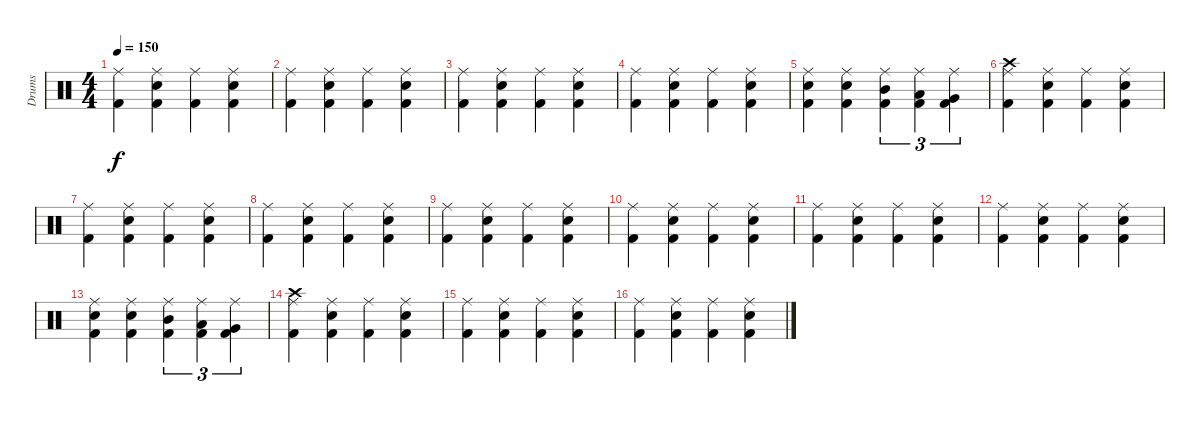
\track ("Drums" "Drums") {instrument percussion}
\staff {score}
\articulation defaults
\ts (4 4)
\tempo 150
\clef neutral
\ks c
("Ride (middle)" "Kick (hit) 2").4{dy f} ("Ride (middle)" "Electric Snare (hit)" "Kick (hit) 2").4 ("Ride (middle)" "Kick (hit) 2").4 ("Ride (middle)" "Electric Snare (hit)" "Kick (hit) 2").4 |
("Ride (middle)" "Kick (hit) 2").4 ("Ride (middle)" "Electric Snare (hit)" "Kick (hit) 2").4 ("Ride (middle)" "Kick (hit) 2").4 ("Ride (middle)" "Electric Snare (hit)" "Kick (hit) 2").4 |
("Ride (middle)" "Kick (hit) 2").4 ("Ride (middle)" "Electric Snare (hit)" "Kick (hit) 2").4 ("Ride (middle)" "Kick (hit) 2").4 ("Ride (middle)" "Electric Snare (hit)" "Kick (hit) 2").4 |
("Ride (middle)" "Kick (hit) 2").4 ("Ride (middle)" "Electric Snare (hit)" "Kick (hit) 2").4 ("Ride (middle)" "Kick (hit) 2").4 ("Ride (middle)" "Electric Snare (hit)" "Kick (hit) 2").4 |
("Ride (middle)" "Electric Snare (hit)" "Kick (hit) 2").4 ("Ride (middle)" "Snare (hit) 2" "Kick (hit) 2").4 ("Ride (middle)" "Mid Tom (hit)" "Kick (hit) 2").4{tu (3 2)} ("Ride (middle)" "Low Tom (hit)" "Kick (hit) 2").4{tu (3 2)} ("Ride (middle)" "Very Low Tom (hit)" "Kick (hit) 2").4{tu (3 2)} |
("Crash high (hit)" "Ride (middle)" "Kick (hit) 2").4 ("Ride (middle)" "Electric Snare (hit)" "Kick (hit) 2").4 ("Ride (middle)" "Kick (hit) 2").4 ("Ride (middle)" "Electric Snare (hit)" "Kick (hit) 2").4 |
("Ride (middle)" "Kick (hit) 2").4 ("Ride (middle)" "Electric Snare (hit)" "Kick (hit) 2").4 ("Ride (middle)" "Kick (hit) 2").4 ("Ride (middle)" "Electric Snare (hit)" "Kick (hit) 2").4 |
("Ride (middle)" "Kick (hit) 2").4 ("Ride (middle)" "Electric Snare (hit)" "Kick (hit) 2").4 ("Ride (middle)" "Kick (hit) 2").4 ("Ride (middle)" "Electric Snare (hit)" "Kick (hit) 2").4 |
("Ride (middle)" "Kick (hit) 2").4 ("Ride (middle)" "Electric Snare (hit)" "Kick (hit) 2").4 ("Ride (middle)" "Kick (hit) 2").4 ("Ride (middle)" "Electric Snare (hit)" "Kick (hit) 2").4 |
("Ride (middle)" "Kick (hit) 2").4 ("Ride (middle)" "Electric Snare (hit)" "Kick (hit) 2").4 ("Ride (middle)" "Kick (hit) 2").4 ("Ride (middle)" "Electric Snare (hit)" "Kick (hit) 2").4 |
("Ride (middle)" "Kick (hit) 2").4 ("Ride (middle)" "Electric Snare (hit)" "Kick (hit) 2").4 ("Ride (middle)" "Kick (hit) 2").4 ("Ride (middle)" "Electric Snare (hit)" "Kick (hit) 2").4 |
("Ride (middle)" "Kick (hit) 2").4 ("Ride (middle)" "Electric Snare (hit)" "Kick (hit) 2").4 ("Ride (middle)" "Kick (hit) 2").4 ("Ride (middle)" "Electric Snare (hit)" "Kick (hit) 2").4 |
("Ride (middle)" "Electric Snare (hit)" "Kick (hit) 2").4 ("Ride (middle)" "Snare (hit) 2" "Kick (hit) 2").4 ("Ride (middle)" "Mid Tom (hit)" "Kick (hit) 2").4{tu (3 2)} ("Ride (middle)" "Low Tom (hit)" "Kick (hit) 2").4{tu (3 2)} ("Ride (middle)" "Very Low Tom (hit)" "Kick (hit) 2").4{tu (3 2)} |
("Crash high (hit)" "Ride (middle)" "Kick (hit) 2").4 ("Ride (middle)" "Electric Snare (hit)" "Kick (hit) 2").4 ("Ride (middle)" "Kick (hit) 2").4 ("Ride (middle)" "Electric Snare (hit)" "Kick (hit) 2").4 |
("Ride (middle)" "Kick (hit) 2").4 ("Ride (middle)" "Electric Snare (hit)" "Kick (hit) 2").4 ("Ride (middle)" "Kick (hit) 2").4 ("Ride (middle)" "Electric Snare (hit)" "Kick (hit) 2").4 |
("Ride (middle)" "Kick (hit) 2").4 ("Ride (middle)" "Electric Snare (hit)" "Kick (hit) 2").4 ("Ride (middle)" "Kick (hit) 2").4 ("Ride (middle)" "Electric Snare (hit)" "Kick (hit) 2").4
